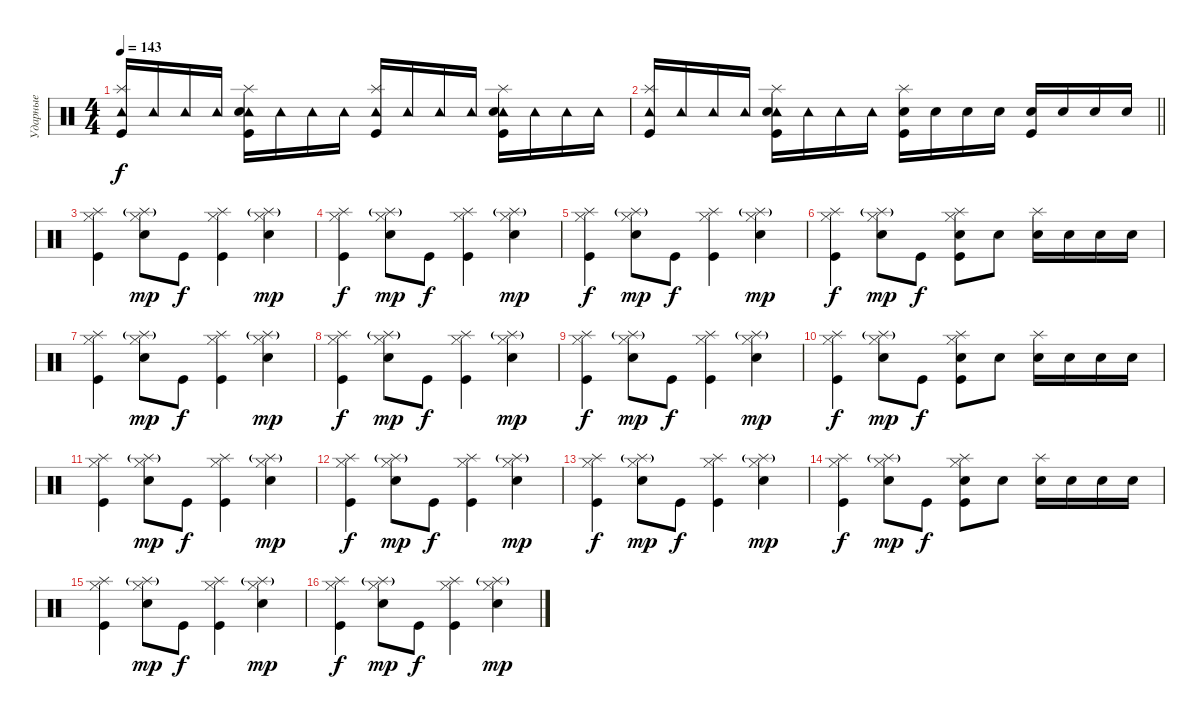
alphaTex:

\track ("Ударные" "Ударные") {instrument percussion}
\staff {score}
\articulation defaults
\ts (4 4)
\tempo 143
\clef neutral
\ks c
("Tambourine (hit)" "Splash (hit)" "Kick (hit)").16{dy f} "Tambourine (hit)".16 "Tambourine (hit)".16 "Tambourine (hit)".16 ("Tambourine (hit)" "Splash (hit)" "Electric Snare (hit)" "Kick (hit)").16 "Tambourine (hit)".16 "Tambourine (hit)".16 "Tambourine (hit)".16 ("Tambourine (hit)" "Splash (hit)" "Kick (hit)").16 "Tambourine (hit)".16 "Tambourine (hit)".16 "Tambourine (hit)".16 ("Tambourine (hit)" "Splash (hit)" "Electric Snare (hit)" "Kick (hit)").16 "Tambourine (hit)".16 "Tambourine (hit)".16 "Tambourine (hit)".16 |
\barLineRight lightlight
("Tambourine (hit)" "Splash (hit)" "Kick (hit)").16 "Tambourine (hit)".16 "Tambourine (hit)".16 "Tambourine (hit)".16 ("Tambourine (hit)" "Splash (hit)" "Electric Snare (hit)" "Kick (hit)").16 "Tambourine (hit)".16 "Tambourine (hit)".16 "Tambourine (hit)".16 ("Splash (hit)" "Snare (hit) 2" "Kick (hit)").16 "Snare (hit) 2".16 "Snare (hit) 2".16 "Snare (hit) 2".16 ("Snare (hit) 2" "Kick (hit)").16 "Snare (hit) 2".16 "Snare (hit) 2".16 "Snare (hit) 2".16 |
("Splash (hit)" "Hi-Hat (closed)" "Kick (hit)").4 ("Splash (hit)"{g} "Hi-Hat (closed)" "Electric Snare (hit)").8{dy mp} "Kick (hit)".8{dy f} ("Splash (hit)" "Hi-Hat (closed)" "Kick (hit)").4 ("Splash (hit)"{g} "Hi-Hat (closed)" "Electric Snare (hit)").4{dy mp} |
("Splash (hit)" "Hi-Hat (closed)" "Kick (hit)").4{dy f} ("Splash (hit)"{g} "Hi-Hat (closed)" "Electric Snare (hit)").8{dy mp} "Kick (hit)".8{dy f} ("Splash (hit)" "Hi-Hat (closed)" "Kick (hit)").4 ("Splash (hit)"{g} "Hi-Hat (closed)" "Electric Snare (hit)").4{dy mp} |
("Splash (hit)" "Hi-Hat (closed)" "Kick (hit)").4{dy f} ("Splash (hit)"{g} "Hi-Hat (closed)" "Electric Snare (hit)").8{dy mp} "Kick (hit)".8{dy f} ("Splash (hit)" "Hi-Hat (closed)" "Kick (hit)").4 ("Splash (hit)"{g} "Hi-Hat (closed)" "Electric Snare (hit)").4{dy mp} |
("Splash (hit)" "Hi-Hat (closed)" "Kick (hit)").4{dy f} ("Splash (hit)"{g} "Hi-Hat (closed)" "Electric Snare (hit)").8{dy mp} "Kick (hit)".8{dy f} ("Splash (hit)" "Hi-Hat (closed)" "Snare (hit) 2" "Kick (hit)").8 "Snare (hit) 2".8 ("Splash (hit)" "Snare (hit) 2").16 "Snare (hit) 2".16 "Snare (hit) 2".16 "Snare (hit) 2".16 |
("Splash (hit)" "Hi-Hat (closed)" "Kick (hit)").4 ("Splash (hit)"{g} "Hi-Hat (closed)" "Electric Snare (hit)").8{dy mp} "Kick (hit)".8{dy f} ("Splash (hit)" "Hi-Hat (closed)" "Kick (hit)").4 ("Splash (hit)"{g} "Hi-Hat (closed)" "Electric Snare (hit)").4{dy mp} |
("Splash (hit)" "Hi-Hat (closed)" "Kick (hit)").4{dy f} ("Splash (hit)"{g} "Hi-Hat (closed)" "Electric Snare (hit)").8{dy mp} "Kick (hit)".8{dy f} ("Splash (hit)" "Hi-Hat (closed)" "Kick (hit)").4 ("Splash (hit)"{g} "Hi-Hat (closed)" "Electric Snare (hit)").4{dy mp} |
("Splash (hit)" "Hi-Hat (closed)" "Kick (hit)").4{dy f} ("Splash (hit)"{g} "Hi-Hat (closed)" "Electric Snare (hit)").8{dy mp} "Kick (hit)".8{dy f} ("Splash (hit)" "Hi-Hat (closed)" "Kick (hit)").4 ("Splash (hit)"{g} "Hi-Hat (closed)" "Electric Snare (hit)").4{dy mp} |
("Splash (hit)" "Hi-Hat (closed)" "Kick (hit)").4{dy f} ("Splash (hit)"{g} "Hi-Hat (closed)" "Electric Snare (hit)").8{dy mp} "Kick (hit)".8{dy f} ("Splash (hit)" "Hi-Hat (closed)" "Snare (hit) 2" "Kick (hit)").8 "Snare (hit) 2".8 ("Splash (hit)" "Snare (hit) 2").16 "Snare (hit) 2".16 "Snare (hit) 2".16 "Snare (hit) 2".16 |
("Splash (hit)" "Hi-Hat (closed)" "Kick (hit)").4 ("Splash (hit)"{g} "Hi-Hat (closed)" "Electric Snare (hit)").8{dy mp} "Kick (hit)".8{dy f} ("Splash (hit)" "Hi-Hat (closed)" "Kick (hit)").4 ("Splash (hit)"{g} "Hi-Hat (closed)" "Electric Snare (hit)").4{dy mp} |
("Splash (hit)" "Hi-Hat (closed)" "Kick (hit)").4{dy f} ("Splash (hit)"{g} "Hi-Hat (closed)" "Electric Snare (hit)").8{dy mp} "Kick (hit)".8{dy f} ("Splash (hit)" "Hi-Hat (closed)" "Kick (hit)").4 ("Splash (hit)"{g} "Hi-Hat (closed)" "Electric Snare (hit)").4{dy mp} |
("Splash (hit)" "Hi-Hat (closed)" "Kick (hit)").4{dy f} ("Splash (hit)"{g} "Hi-Hat (closed)" "Electric Snare (hit)").8{dy mp} "Kick (hit)".8{dy f} ("Splash (hit)" "Hi-Hat (closed)" "Kick (hit)").4 ("Splash (hit)"{g} "Hi-Hat (closed)" "Electric Snare (hit)").4{dy mp} |
("Splash (hit)" "Hi-Hat (closed)" "Kick (hit)").4{dy f} ("Splash (hit)"{g} "Hi-Hat (closed)" "Electric Snare (hit)").8{dy mp} "Kick (hit)".8{dy f} ("Splash (hit)" "Hi-Hat (closed)" "Snare (hit) 2" "Kick (hit)").8 "Snare (hit) 2".8 ("Splash (hit)" "Snare (hit) 2").16 "Snare (hit) 2".16 "Snare (hit) 2".16 "Snare (hit) 2".16 |
("Splash (hit)" "Hi-Hat (closed)" "Kick (hit)").4 ("Splash (hit)"{g} "Hi-Hat (closed)" "Electric Snare (hit)").8{dy mp} "Kick (hit)".8{dy f} ("Splash (hit)" "Hi-Hat (closed)" "Kick (hit)").4 ("Splash (hit)"{g} "Hi-Hat (closed)" "Electric Snare (hit)").4{dy mp} |
("Splash (hit)" "Hi-Hat (closed)" "Kick (hit)").4{dy f} ("Splash (hit)"{g} "Hi-Hat (closed)" "Electric Snare (hit)").8{dy mp} "Kick (hit)".8{dy f} ("Splash (hit)" "Hi-Hat (closed)" "Kick (hit)").4 ("Splash (hit)"{g} "Hi-Hat (closed)" "Electric Snare (hit)").4{dy mp}
